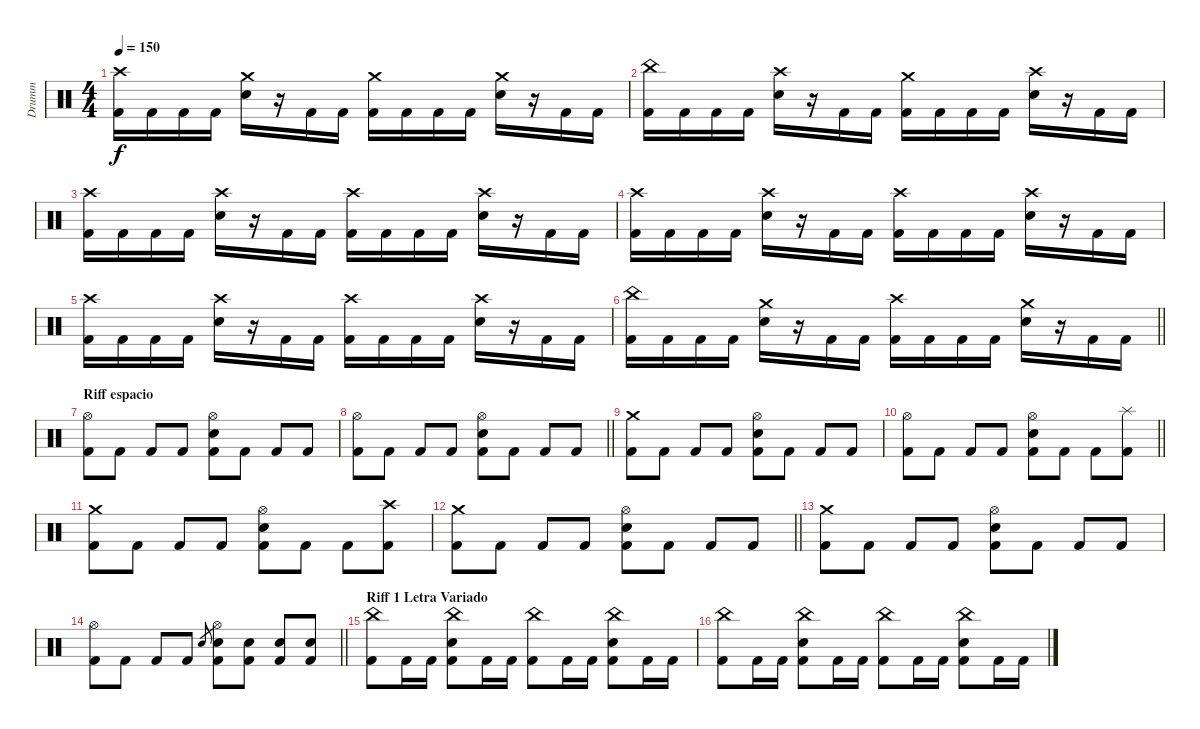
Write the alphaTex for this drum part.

\track ("Drumm" "Drumm") {instrument percussion}
\staff {score}
\articulation defaults
\ts (4 4)
\tempo 150
\clef neutral
\ks c
("Crash high (hit)" "Kick (hit) 2").16{dy f} "Kick (hit) 2".16 "Kick (hit) 2".16 "Kick (hit) 2".16 ("Crash medium (hit)" "Snare (hit) 2").16 r.16 "Kick (hit) 2".16 "Kick (hit) 2".16 ("Crash medium (hit)" "Kick (hit) 2").16 "Kick (hit) 2".16 "Kick (hit) 2".16 "Kick (hit) 2".16 ("Crash medium (hit)" "Snare (hit) 2").16 r.16 "Kick (hit) 2".16 "Kick (hit) 2".16 |
("China (hit)" "Kick (hit) 2").16 "Kick (hit) 2".16 "Kick (hit) 2".16 "Kick (hit) 2".16 ("Crash high (hit)" "Snare (hit) 2").16 r.16 "Kick (hit) 2".16 "Kick (hit) 2".16 ("Crash medium (hit)" "Kick (hit) 2").16 "Kick (hit) 2".16 "Kick (hit) 2".16 "Kick (hit) 2".16 ("Crash high (hit)" "Snare (hit) 2").16 r.16 "Kick (hit) 2".16 "Kick (hit) 2".16 |
("Crash high (hit)" "Kick (hit) 2").16 "Kick (hit) 2".16 "Kick (hit) 2".16 "Kick (hit) 2".16 ("Crash high (hit)" "Snare (hit) 2").16 r.16 "Kick (hit) 2".16 "Kick (hit) 2".16 ("Crash high (hit)" "Kick (hit) 2").16 "Kick (hit) 2".16 "Kick (hit) 2".16 "Kick (hit) 2".16 ("Crash high (hit)" "Snare (hit) 2").16 r.16 "Kick (hit) 2".16 "Kick (hit) 2".16 |
("Crash high (hit)" "Kick (hit) 2").16 "Kick (hit) 2".16 "Kick (hit) 2".16 "Kick (hit) 2".16 ("Crash high (hit)" "Snare (hit) 2").16 r.16 "Kick (hit) 2".16 "Kick (hit) 2".16 ("Crash high (hit)" "Kick (hit) 2").16 "Kick (hit) 2".16 "Kick (hit) 2".16 "Kick (hit) 2".16 ("Crash high (hit)" "Snare (hit) 2").16 r.16 "Kick (hit) 2".16 "Kick (hit) 2".16 |
("Crash high (hit)" "Kick (hit) 2").16 "Kick (hit) 2".16 "Kick (hit) 2".16 "Kick (hit) 2".16 ("Crash high (hit)" "Snare (hit) 2").16 r.16 "Kick (hit) 2".16 "Kick (hit) 2".16 ("Crash high (hit)" "Kick (hit) 2").16 "Kick (hit) 2".16 "Kick (hit) 2".16 "Kick (hit) 2".16 ("Crash high (hit)" "Snare (hit) 2").16 r.16 "Kick (hit) 2".16 "Kick (hit) 2".16 |
\barLineRight lightlight
("China (hit)" "Kick (hit) 2").16 "Kick (hit) 2".16 "Kick (hit) 2".16 "Kick (hit) 2".16 ("Crash medium (hit)" "Snare (hit) 2").16 r.16 "Kick (hit) 2".16 "Kick (hit) 2".16 ("Crash high (hit)" "Kick (hit) 2").16 "Kick (hit) 2".16 "Kick (hit) 2".16 "Kick (hit) 2".16 ("Crash medium (hit)" "Snare (hit) 2").16 r.16 "Kick (hit) 2".16 "Kick (hit) 2".16 |
\section ("" "Riff espacio")
("Hi-Hat (open)" "Kick (hit) 2").8 "Kick (hit) 2".8 "Kick (hit) 2".8 "Kick (hit) 2".8 ("Hi-Hat (open)" "Snare (hit) 2" "Kick (hit) 2").8 "Kick (hit) 2".8 "Kick (hit) 2".8 "Kick (hit) 2".8 |
\barLineRight lightlight
("Hi-Hat (open)" "Kick (hit) 2").8 "Kick (hit) 2".8 "Kick (hit) 2".8 "Kick (hit) 2".8 ("Hi-Hat (open)" "Snare (hit) 2" "Kick (hit) 2").8 "Kick (hit) 2".8 "Kick (hit) 2".8 "Kick (hit) 2".8 |
("Crash medium (hit)" "Kick (hit) 2").8 "Kick (hit) 2".8 "Kick (hit) 2".8 "Kick (hit) 2".8 ("Hi-Hat (open)" "Snare (hit) 2" "Kick (hit) 2").8 "Kick (hit) 2".8 "Kick (hit) 2".8 "Kick (hit) 2".8 |
\barLineRight lightlight
("Hi-Hat (open)" "Kick (hit) 2").8 "Kick (hit) 2".8 "Kick (hit) 2".8 "Kick (hit) 2".8 ("Hi-Hat (open)" "Snare (hit) 2" "Kick (hit) 2").8 "Kick (hit) 2".8 "Kick (hit) 2".8 ("Splash (hit)" "Kick (hit) 2").8 |
("Crash medium (hit)" "Kick (hit) 2").8 "Kick (hit) 2".8 "Kick (hit) 2".8 "Kick (hit) 2".8 ("Hi-Hat (open)" "Snare (hit) 2" "Kick (hit) 2").8 "Kick (hit) 2".8 "Kick (hit) 2".8 ("Crash high (hit)" "Kick (hit) 2").8 |
\barLineRight lightlight
("Crash medium (hit)" "Kick (hit) 2").8 "Kick (hit) 2".8 "Kick (hit) 2".8 "Kick (hit) 2".8 ("Hi-Hat (open)" "Snare (hit) 2" "Kick (hit) 2").8 "Kick (hit) 2".8 "Kick (hit) 2".8 "Kick (hit) 2".8 |
("Crash medium (hit)" "Kick (hit) 2").8 "Kick (hit) 2".8 "Kick (hit) 2".8 "Kick (hit) 2".8 ("Hi-Hat (open)" "Snare (hit) 2" "Kick (hit) 2").8 "Kick (hit) 2".8 "Kick (hit) 2".8 "Kick (hit) 2".8 |
\barLineRight lightlight
("Hi-Hat (open)" "Kick (hit) 2").8 "Kick (hit) 2".8 "Kick (hit) 2".8 "Kick (hit) 2".8 "Snare (hit) 2".8{gr} ("Hi-Hat (open)" "Snare (hit) 2" "Kick (hit) 2").8 ("Snare (hit) 2" "Kick (hit) 2").8 ("Snare (hit) 2" "Kick (hit) 2").8 ("Snare (hit) 2" "Kick (hit) 2").8 |
\section ("" "Riff 1 Letra Variado")
("China (hit)" "Kick (hit) 2").8 "Kick (hit) 2".16 "Kick (hit) 2".16 ("China (hit)" "Snare (hit) 2" "Kick (hit) 2").8 "Kick (hit) 2".16 "Kick (hit) 2".16 ("China (hit)" "Kick (hit) 2").8 "Kick (hit) 2".16 "Kick (hit) 2".16 ("China (hit)" "Snare (hit) 2" "Kick (hit) 2").8 "Kick (hit) 2".16 "Kick (hit) 2".16 |
("China (hit)" "Kick (hit) 2").8 "Kick (hit) 2".16 "Kick (hit) 2".16 ("China (hit)" "Snare (hit) 2" "Kick (hit) 2").8 "Kick (hit) 2".16 "Kick (hit) 2".16 ("China (hit)" "Kick (hit) 2").8 "Kick (hit) 2".16 "Kick (hit) 2".16 ("China (hit)" "Snare (hit) 2" "Kick (hit) 2").8 "Kick (hit) 2".16 "Kick (hit) 2".16
